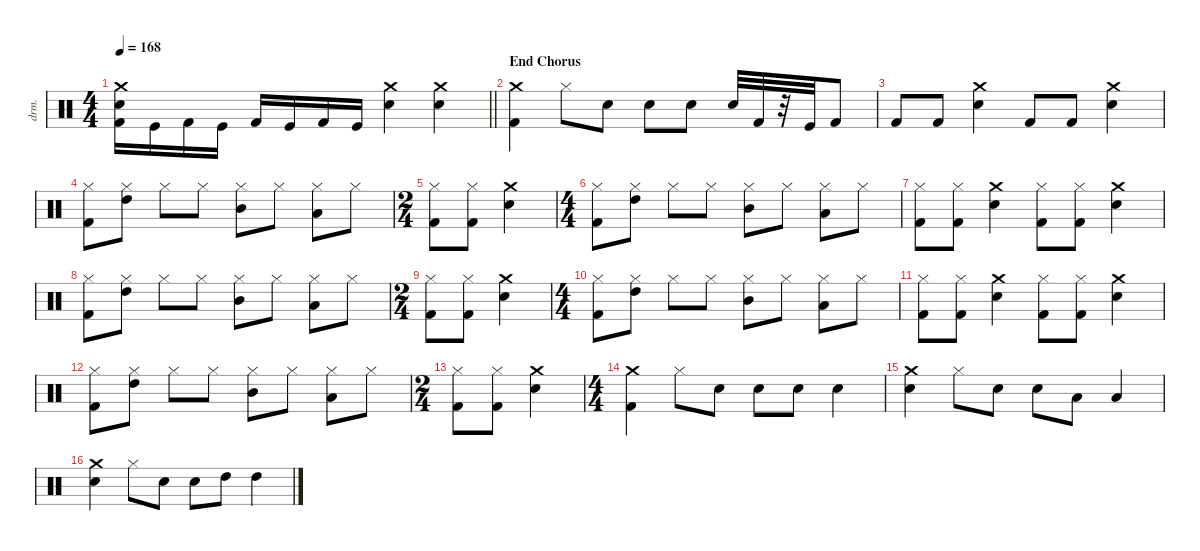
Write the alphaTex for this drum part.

\defaultSystemsLayout 4
\hideDynamics
\bracketExtendMode nobrackets
\otherSystemsTrackNameOrientation horizontal
\track ("Drums" "drm.") {instrument percussion}
\staff {score}
\articulation defaults
\ts (4 4)
\tempo 168
\clef neutral
\barLineRight lightlight
\ks c
("Kick (hit) 2" "Snare (hit) 2" "Crash medium (hit)").16{dy fff} "Kick (hit)".16 "Kick (hit) 2".16 "Kick (hit)".16 "Kick (hit) 2".16 "Kick (hit)".16 "Kick (hit) 2".16 "Kick (hit)".16 ("Crash medium (hit)" "Snare (hit) 2").4 ("Snare (hit) 2" "Crash medium (hit)").4 |
\section ("" "End Chorus")
("Kick (hit) 2" "Crash medium (hit)").4 "Hi-Hat (closed)".8 "Snare (hit) 2".8 "Snare (hit) 2".8 "Snare (hit) 2".8 "Snare (hit) 2".32 "Kick (hit) 2".32 r.32 "Kick (hit)".32 "Kick (hit) 2".8 |
"Kick (hit) 2".8 "Kick (hit) 2".8 ("Snare (hit) 2" "Crash medium (hit)").4 "Kick (hit) 2".8 "Kick (hit) 2".8 ("Crash medium (hit)" "Snare (hit) 2").4 |
("Hi-Hat (closed)" "Kick (hit) 2").8 ("High Tom (hit)" "Hi-Hat (closed)").8 "Hi-Hat (closed)".8 "Hi-Hat (closed)".8 ("Mid Tom (hit)" "Hi-Hat (closed)").8 "Hi-Hat (closed)".8 ("Low Tom (hit)" "Hi-Hat (closed)").8 "Hi-Hat (closed)".8 |
\ts (2 4)
\beaming (8 2 2)
("Kick (hit) 2" "Hi-Hat (closed)").8 ("Kick (hit) 2" "Hi-Hat (closed)").8 ("Snare (hit) 2" "Crash medium (hit)").4 |
\ts (4 4)
\beaming (8 2 2 2 2)
("Hi-Hat (closed)" "Kick (hit) 2").8 ("High Tom (hit)" "Hi-Hat (closed)").8 "Hi-Hat (closed)".8 "Hi-Hat (closed)".8 ("Mid Tom (hit)" "Hi-Hat (closed)").8 "Hi-Hat (closed)".8 ("Hi-Hat (closed)" "Low Tom (hit)").8 "Hi-Hat (closed)".8 |
("Hi-Hat (closed)" "Kick (hit) 2").8 ("Hi-Hat (closed)" "Kick (hit) 2").8 ("Snare (hit) 2" "Crash medium (hit)").4 ("Kick (hit) 2" "Hi-Hat (closed)").8 ("Kick (hit) 2" "Hi-Hat (closed)").8 ("Crash medium (hit)" "Snare (hit) 2").4 |
("Hi-Hat (closed)" "Kick (hit) 2").8 ("High Tom (hit)" "Hi-Hat (closed)").8 "Hi-Hat (closed)".8 "Hi-Hat (closed)".8 ("Mid Tom (hit)" "Hi-Hat (closed)").8 "Hi-Hat (closed)".8 ("Low Tom (hit)" "Hi-Hat (closed)").8 "Hi-Hat (closed)".8 |
\ts (2 4)
\beaming (8 2 2)
("Kick (hit) 2" "Hi-Hat (closed)").8 ("Kick (hit) 2" "Hi-Hat (closed)").8 ("Snare (hit) 2" "Crash medium (hit)").4 |
\ts (4 4)
\beaming (8 2 2 2 2)
("Hi-Hat (closed)" "Kick (hit) 2").8 ("High Tom (hit)" "Hi-Hat (closed)").8 "Hi-Hat (closed)".8 "Hi-Hat (closed)".8 ("Mid Tom (hit)" "Hi-Hat (closed)").8 "Hi-Hat (closed)".8 ("Hi-Hat (closed)" "Low Tom (hit)").8 "Hi-Hat (closed)".8 |
("Hi-Hat (closed)" "Kick (hit) 2").8 ("Hi-Hat (closed)" "Kick (hit) 2").8 ("Snare (hit) 2" "Crash medium (hit)").4 ("Kick (hit) 2" "Hi-Hat (closed)").8 ("Kick (hit) 2" "Hi-Hat (closed)").8 ("Crash medium (hit)" "Snare (hit) 2").4 |
("Hi-Hat (closed)" "Kick (hit) 2").8 ("High Tom (hit)" "Hi-Hat (closed)").8 "Hi-Hat (closed)".8 "Hi-Hat (closed)".8 ("Mid Tom (hit)" "Hi-Hat (closed)").8 "Hi-Hat (closed)".8 ("Hi-Hat (closed)" "Low Tom (hit)").8 "Hi-Hat (closed)".8 |
\ts (2 4)
\beaming (8 2 2)
("Hi-Hat (closed)" "Kick (hit) 2").8 ("Hi-Hat (closed)" "Kick (hit) 2").8 ("Crash medium (hit)" "Snare (hit) 2").4 |
\ts (4 4)
\beaming (8 2 2 2 2)
("Kick (hit) 2" "Crash medium (hit)").4 "Hi-Hat (closed)".8 "Snare (hit) 2".8 "Snare (hit) 2".8 "Snare (hit) 2".8 "Snare (hit) 2".4 |
("Snare (hit) 2" "Crash medium (hit)").4 "Hi-Hat (closed)".8 "Snare (hit) 2".8 "Snare (hit) 2".8 "Low Tom (hit)".8 "Low Tom (hit)".4 |
("Snare (hit) 2" "Crash medium (hit)").4 "Hi-Hat (closed)".8 "Snare (hit) 2".8 "Snare (hit) 2".8 "High Tom (hit)".8 "High Tom (hit)".4
